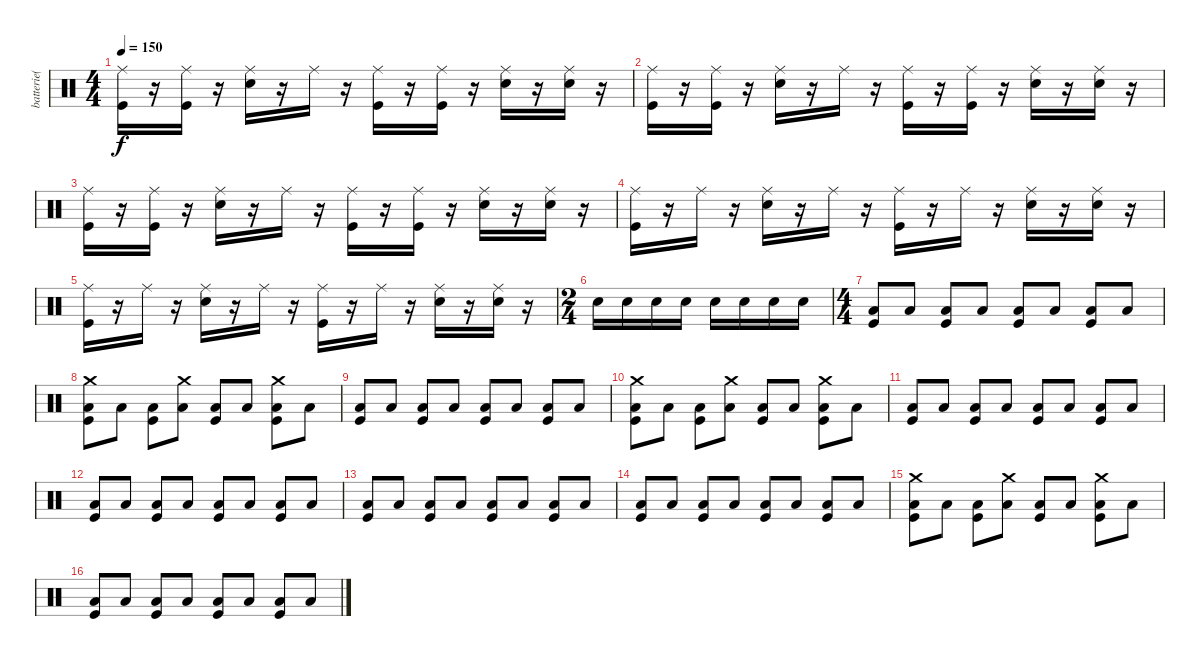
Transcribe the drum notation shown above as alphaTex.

\track ("batterie(  Mark Cain )" "batterie( ") {instrument percussion}
\staff {score}
\articulation defaults
\ts (4 4)
\tempo 150
\clef neutral
\ks c
("Ride (middle)" "Kick (hit)").16{dy f} r.16 ("Ride (middle)" "Kick (hit)").16 r.16 ("Ride (middle)" "Snare (hit) 2").16 r.16 "Ride (middle)".16 r.16 ("Ride (middle)" "Kick (hit)").16 r.16 ("Ride (middle)" "Kick (hit)").16 r.16 ("Ride (middle)" "Snare (hit) 2").16 r.16 ("Ride (middle)" "Snare (hit) 2").16 r.16 |
("Ride (middle)" "Kick (hit)").16 r.16 ("Ride (middle)" "Kick (hit)").16 r.16 ("Ride (middle)" "Snare (hit) 2").16 r.16 "Ride (middle)".16 r.16 ("Ride (middle)" "Kick (hit)").16 r.16 ("Ride (middle)" "Kick (hit)").16 r.16 ("Ride (middle)" "Snare (hit) 2").16 r.16 ("Ride (middle)" "Snare (hit) 2").16 r.16 |
("Ride (middle)" "Kick (hit)").16 r.16 ("Ride (middle)" "Kick (hit)").16 r.16 ("Ride (middle)" "Snare (hit) 2").16 r.16 "Ride (middle)".16 r.16 ("Ride (middle)" "Kick (hit)").16 r.16 ("Ride (middle)" "Kick (hit)").16 r.16 ("Ride (middle)" "Snare (hit) 2").16 r.16 ("Ride (middle)" "Snare (hit) 2").16 r.16 |
("Ride (middle)" "Kick (hit)").16 r.16 "Ride (middle)".16 r.16 ("Ride (middle)" "Snare (hit) 2").16 r.16 "Ride (middle)".16 r.16 ("Ride (middle)" "Kick (hit)").16 r.16 "Ride (middle)".16 r.16 ("Ride (middle)" "Snare (hit) 2").16 r.16 ("Ride (middle)" "Snare (hit) 2").16 r.16 |
("Ride (middle)" "Kick (hit)").16 r.16 "Ride (middle)".16 r.16 ("Ride (middle)" "Snare (hit) 2").16 r.16 "Ride (middle)".16 r.16 ("Ride (middle)" "Kick (hit)").16 r.16 "Ride (middle)".16 r.16 ("Ride (middle)" "Snare (hit) 2").16 r.16 ("Ride (middle)" "Snare (hit) 2").16 r.16 |
\ts (2 4)
"Snare (hit) 2".16 "Snare (hit) 2".16 "Snare (hit) 2".16 "Snare (hit) 2".16 "Snare (hit) 2".16 "Snare (hit) 2".16 "Snare (hit) 2".16 "Snare (hit) 2".16 |
\ts (4 4)
("Low Floor Tom (hit)" "Kick (hit)").8 "Low Floor Tom (hit)".8 ("Low Floor Tom (hit)" "Kick (hit)").8 "Low Floor Tom (hit)".8 ("Low Floor Tom (hit)" "Kick (hit)").8 "Low Floor Tom (hit)".8 ("Low Floor Tom (hit)" "Kick (hit)").8 "Low Floor Tom (hit)".8 |
("Crash medium (hit)" "Low Floor Tom (hit)" "Kick (hit)").8 "Low Floor Tom (hit)".8 ("Low Floor Tom (hit)" "Kick (hit)").8 ("Crash medium (hit)" "Low Floor Tom (hit)").8 ("Low Floor Tom (hit)" "Kick (hit)").8 "Low Floor Tom (hit)".8 ("Crash medium (hit)" "Low Floor Tom (hit)" "Kick (hit)").8 "Low Floor Tom (hit)".8 |
("Low Floor Tom (hit)" "Kick (hit)").8 "Low Floor Tom (hit)".8 ("Low Floor Tom (hit)" "Kick (hit)").8 "Low Floor Tom (hit)".8 ("Low Floor Tom (hit)" "Kick (hit)").8 "Low Floor Tom (hit)".8 ("Low Floor Tom (hit)" "Kick (hit)").8 "Low Floor Tom (hit)".8 |
("Crash medium (hit)" "Low Floor Tom (hit)" "Kick (hit)").8 "Low Floor Tom (hit)".8 ("Low Floor Tom (hit)" "Kick (hit)").8 ("Crash medium (hit)" "Low Floor Tom (hit)").8 ("Low Floor Tom (hit)" "Kick (hit)").8 "Low Floor Tom (hit)".8 ("Crash medium (hit)" "Low Floor Tom (hit)" "Kick (hit)").8 "Low Floor Tom (hit)".8 |
("Low Floor Tom (hit)" "Kick (hit)").8 "Low Floor Tom (hit)".8 ("Low Floor Tom (hit)" "Kick (hit)").8 "Low Floor Tom (hit)".8 ("Low Floor Tom (hit)" "Kick (hit)").8 "Low Floor Tom (hit)".8 ("Low Floor Tom (hit)" "Kick (hit)").8 "Low Floor Tom (hit)".8 |
("Low Floor Tom (hit)" "Kick (hit)").8 "Low Floor Tom (hit)".8 ("Low Floor Tom (hit)" "Kick (hit)").8 "Low Floor Tom (hit)".8 ("Low Floor Tom (hit)" "Kick (hit)").8 "Low Floor Tom (hit)".8 ("Low Floor Tom (hit)" "Kick (hit)").8 "Low Floor Tom (hit)".8 |
("Low Floor Tom (hit)" "Kick (hit)").8 "Low Floor Tom (hit)".8 ("Low Floor Tom (hit)" "Kick (hit)").8 "Low Floor Tom (hit)".8 ("Low Floor Tom (hit)" "Kick (hit)").8 "Low Floor Tom (hit)".8 ("Low Floor Tom (hit)" "Kick (hit)").8 "Low Floor Tom (hit)".8 |
("Low Floor Tom (hit)" "Kick (hit)").8 "Low Floor Tom (hit)".8 ("Low Floor Tom (hit)" "Kick (hit)").8 "Low Floor Tom (hit)".8 ("Low Floor Tom (hit)" "Kick (hit)").8 "Low Floor Tom (hit)".8 ("Low Floor Tom (hit)" "Kick (hit)").8 "Low Floor Tom (hit)".8 |
("Crash medium (hit)" "Low Floor Tom (hit)" "Kick (hit)").8 "Low Floor Tom (hit)".8 ("Low Floor Tom (hit)" "Kick (hit)").8 ("Crash medium (hit)" "Low Floor Tom (hit)").8 ("Low Floor Tom (hit)" "Kick (hit)").8 "Low Floor Tom (hit)".8 ("Crash medium (hit)" "Low Floor Tom (hit)" "Kick (hit)").8 "Low Floor Tom (hit)".8 |
("Low Floor Tom (hit)" "Kick (hit)").8 "Low Floor Tom (hit)".8 ("Low Floor Tom (hit)" "Kick (hit)").8 "Low Floor Tom (hit)".8 ("Low Floor Tom (hit)" "Kick (hit)").8 "Low Floor Tom (hit)".8 ("Low Floor Tom (hit)" "Kick (hit)").8 "Low Floor Tom (hit)".8
